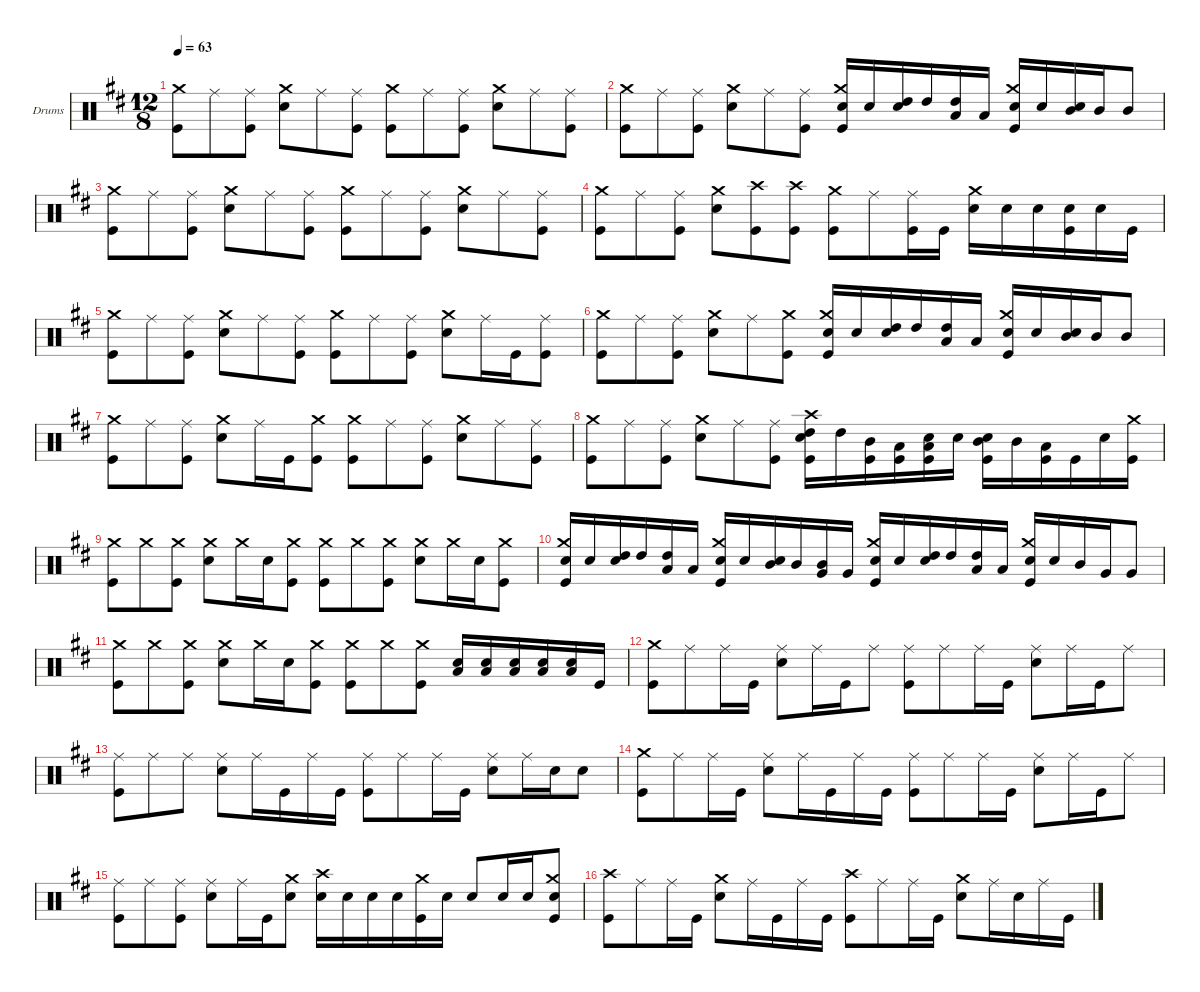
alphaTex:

\defaultSystemsLayout 4
\hideDynamics
\bracketExtendMode groupsimilarinstruments
\firstSystemTrackNameOrientation horizontal
\otherSystemsTrackNameOrientation horizontal
\track ("Batterie" "Drums") {multiBarRest instrument percussion}
\staff {score}
\articulation defaults
\ts (12 8)
\tempo 63
\clef neutral
\ks d
("Kick (hit)" "Crash medium (hit)").8{dy ff} "Ride (middle)".8 ("Kick (hit)" "Ride (middle)").8 ("Snare (hit) 2" "Crash medium (hit)").8 "Ride (middle)".8 ("Kick (hit)" "Ride (middle)").8 ("Kick (hit)" "Crash medium (hit)").8 "Ride (middle)".8 ("Kick (hit)" "Ride (middle)").8 ("Snare (hit) 2" "Crash medium (hit)").8 "Ride (middle)".8 ("Kick (hit)" "Ride (middle)").8 |
("Kick (hit)" "Crash medium (hit)").8 "Ride (middle)".8 ("Kick (hit)" "Ride (middle)").8 ("Snare (hit) 2" "Crash medium (hit)").8 "Ride (middle)".8 ("Kick (hit)" "Ride (middle)").8 ("Kick (hit)" "Crash medium (hit)" "Snare (hit) 2").16 "Snare (hit) 2".16 ("Snare (hit) 2" "High Tom (hit)").16 "High Tom (hit)".16 ("High Tom (hit)" "Low Tom (hit)").16 "Low Tom (hit)".16 ("Kick (hit)" "Crash medium (hit)" "Snare (hit) 2").16 "Snare (hit) 2".16 ("Snare (hit) 2" "Mid Tom (hit)").16 "Mid Tom (hit)".16 "Mid Tom (hit)".8 |
("Kick (hit)" "Crash medium (hit)").8 "Ride (middle)".8 ("Kick (hit)" "Ride (middle)").8 ("Snare (hit) 2" "Crash medium (hit)").8 "Ride (middle)".8 ("Kick (hit)" "Ride (middle)").8 ("Kick (hit)" "Crash medium (hit)").8 "Ride (middle)".8 ("Kick (hit)" "Ride (middle)").8 ("Snare (hit) 2" "Crash medium (hit)").8 "Ride (middle)".8 ("Kick (hit)" "Ride (middle)").8 |
("Kick (hit)" "Crash medium (hit)").8 "Ride (middle)".8 ("Kick (hit)" "Ride (middle)").8 ("Snare (hit) 2" "Crash medium (hit)").8 ("Kick (hit)" "Crash high (hit)").8 ("Kick (hit)" "Crash high (hit)").8 ("Kick (hit)" "Crash medium (hit)").8 "Ride (middle)".8 ("Kick (hit)" "Ride (middle)").16 "Kick (hit)".16 ("Snare (hit) 2" "Crash medium (hit)").16 "Snare (hit) 2".16 "Snare (hit) 2".16 ("Kick (hit)" "Snare (hit) 2").16 "Snare (hit) 2".16 "Kick (hit)".16 |
("Kick (hit)" "Crash medium (hit)").8 "Ride (middle)".8 ("Kick (hit)" "Ride (middle)").8 ("Snare (hit) 2" "Crash medium (hit)").8 "Ride (middle)".8 ("Kick (hit)" "Ride (middle)").8 ("Kick (hit)" "Crash medium (hit)").8 "Ride (middle)".8 ("Kick (hit)" "Ride (middle)").8 ("Snare (hit) 2" "Crash medium (hit)").8 "Ride (middle)".16 "Kick (hit)".16 ("Kick (hit)" "Ride (middle)").8 |
("Kick (hit)" "Crash medium (hit)").8 "Ride (middle)".8 ("Kick (hit)" "Ride (middle)").8 ("Snare (hit) 2" "Crash medium (hit)").8 "Ride (middle)".8 ("Kick (hit)" "Crash medium (hit)").8 ("Kick (hit)" "Crash medium (hit)" "Snare (hit) 2").16 "Snare (hit) 2".16 ("Snare (hit) 2" "High Tom (hit)").16 "High Tom (hit)".16 ("High Tom (hit)" "Low Tom (hit)").16 "Low Tom (hit)".16 ("Kick (hit)" "Crash medium (hit)" "Snare (hit) 2").16 "Snare (hit) 2".16 ("Snare (hit) 2" "Mid Tom (hit)").16 "Mid Tom (hit)".16 "Mid Tom (hit)".8 |
("Kick (hit)" "Crash medium (hit)").8 "Ride (middle)".8 ("Kick (hit)" "Ride (middle)").8 ("Snare (hit) 2" "Crash medium (hit)").8 "Ride (middle)".16 "Kick (hit)".16 ("Kick (hit)" "Crash medium (hit)").8 ("Kick (hit)" "Crash medium (hit)").8 "Ride (middle)".8 ("Kick (hit)" "Ride (middle)").8 ("Snare (hit) 2" "Crash medium (hit)").8 "Ride (middle)".8 ("Kick (hit)" "Ride (middle)").8 |
("Kick (hit)" "Crash medium (hit)").8 "Ride (middle)".8 ("Kick (hit)" "Ride (middle)").8 ("Snare (hit) 2" "Crash medium (hit)").8 "Ride (middle)".8 ("Kick (hit)" "Ride (middle)").8 ("Snare (hit) 2" "Crash high (hit)" "Kick (hit)" "High Tom (hit)").16 "High Tom (hit)".16 ("Kick (hit)" "Mid Tom (hit)").16 ("Kick (hit)" "Low Tom (hit)").16 ("Low Tom (hit)" "Kick (hit)" "Snare (hit) 2").16 "Snare (hit) 2".16 ("Snare (hit) 2" "Kick (hit)" "Mid Tom (hit)").16 "Mid Tom (hit)".16 ("Kick (hit)" "Low Tom (hit)").16 "Kick (hit)".16 "Snare (hit) 2".16 ("Kick (hit)" "Crash medium (hit)").16 |
("Kick (hit)" "Crash medium (hit)").8 "Crash medium (hit)".8 ("Kick (hit)" "Crash medium (hit)").8 ("Snare (hit) 2" "Crash medium (hit)").8 "Crash medium (hit)".16 "Snare (hit) 2".16 ("Kick (hit)" "Crash medium (hit)").8 ("Kick (hit)" "Crash medium (hit)").8 "Crash medium (hit)".8 ("Kick (hit)" "Crash medium (hit)").8 ("Snare (hit) 2" "Crash medium (hit)").8 "Crash medium (hit)".16 "Snare (hit) 2".16 ("Kick (hit)" "Crash medium (hit)").8 |
("Kick (hit)" "Crash medium (hit)" "Snare (hit) 2").16 "Snare (hit) 2".16 ("Snare (hit) 2" "High Tom (hit)").16 "High Tom (hit)".16 ("High Tom (hit)" "Low Tom (hit)").16 "Low Tom (hit)".16 ("Kick (hit)" "Crash medium (hit)" "Snare (hit) 2").16 "Snare (hit) 2".16 ("Snare (hit) 2" "Mid Tom (hit)").16 "Mid Tom (hit)".16 ("Mid Tom (hit)" "Very Low Tom (hit)").16 "Very Low Tom (hit)".16 ("Kick (hit)" "Crash medium (hit)" "Snare (hit) 2").16 "Snare (hit) 2".16 ("Snare (hit) 2" "High Tom (hit)").16 "High Tom (hit)".16 ("High Tom (hit)" "Low Tom (hit)").16 "Low Tom (hit)".16 ("Kick (hit)" "Crash medium (hit)" "Snare (hit) 2").16 "Snare (hit) 2".16 "Mid Tom (hit)".16 "Very Low Tom (hit)".16 "Very Low Tom (hit)".8 |
("Kick (hit)" "Crash medium (hit)").8 "Crash medium (hit)".8 ("Kick (hit)" "Crash medium (hit)").8 ("Snare (hit) 2" "Crash medium (hit)").8 "Crash medium (hit)".16 "Snare (hit) 2".16 ("Kick (hit)" "Crash medium (hit)").8 ("Kick (hit)" "Crash medium (hit)").8 "Crash medium (hit)".8 ("Kick (hit)" "Crash medium (hit)").8 ("Snare (hit) 2" "Low Tom (hit)").16 ("Snare (hit) 2" "Low Tom (hit)").16 ("Snare (hit) 2" "Low Tom (hit)").16 ("Snare (hit) 2" "Low Tom (hit)").16 ("Snare (hit) 2" "Low Tom (hit)").16 "Kick (hit)".16 |
("Kick (hit)" "Crash medium (hit)").8 "Ride (middle)".8 "Ride (middle)".16 "Kick (hit)".16 ("Snare (hit) 2" "Ride (middle)").8 "Ride (middle)".16 "Kick (hit)".16 "Ride (middle)".8 ("Kick (hit)" "Ride (middle)").8 "Ride (middle)".8 "Ride (middle)".16 "Kick (hit)".16 ("Snare (hit) 2" "Ride (middle)").8 "Ride (middle)".16 "Kick (hit)".16 "Ride (middle)".8 |
("Kick (hit)" "Ride (middle)").8 "Ride (middle)".8 "Ride (middle)".8 ("Snare (hit) 2" "Ride (middle)").8 "Ride (middle)".16 "Kick (hit)".16 "Ride (middle)".16 "Kick (hit)".16 ("Kick (hit)" "Ride (middle)").8 "Ride (middle)".8 "Ride (middle)".16 "Kick (hit)".16 ("Snare (hit) 2" "Ride (middle)").8 "Ride (middle)".16 "Snare (hit) 2".16 "Snare (hit) 2".8 |
("Kick (hit)" "Crash medium (hit)").8 "Ride (middle)".8 "Ride (middle)".16 "Kick (hit)".16 ("Snare (hit) 2" "Ride (middle)").8 "Ride (middle)".16 "Kick (hit)".16 "Ride (middle)".16 "Kick (hit)".16 ("Kick (hit)" "Ride (middle)").8 "Ride (middle)".8 "Ride (middle)".16 "Kick (hit)".16 ("Snare (hit) 2" "Ride (middle)").8 "Ride (middle)".16 "Kick (hit)".16 "Ride (middle)".8 |
("Kick (hit)" "Ride (middle)").8 "Ride (middle)".8 ("Kick (hit)" "Ride (middle)").8 ("Snare (hit) 2" "Ride (middle)").8 "Ride (middle)".16 "Kick (hit)".16 ("Snare (hit) 2" "Crash medium (hit)").8 ("Snare (hit) 2" "Crash high (hit)").16 "Snare (hit) 2".16 "Snare (hit) 2".16 "Snare (hit) 2".16 ("Kick (hit)" "Crash medium (hit)").16 "Snare (hit) 2".16 "Snare (hit) 2".8 "Snare (hit) 2".16 "Snare (hit) 2".16 ("Snare (hit) 2" "Kick (hit)" "Crash medium (hit)").8 |
("Kick (hit)" "Crash high (hit)").8 "Ride (middle)".8 "Ride (middle)".16 "Kick (hit)".16 ("Snare (hit) 2" "Crash medium (hit)").8 "Ride (middle)".16 "Kick (hit)".16 "Ride (middle)".16 "Kick (hit)".16 ("Kick (hit)" "Crash high (hit)").8 "Ride (middle)".8 "Ride (middle)".16 "Kick (hit)".16 ("Snare (hit) 2" "Crash medium (hit)").8 "Ride (middle)".16 "Snare (hit) 2".16 "Ride (middle)".16 "Kick (hit)".16
